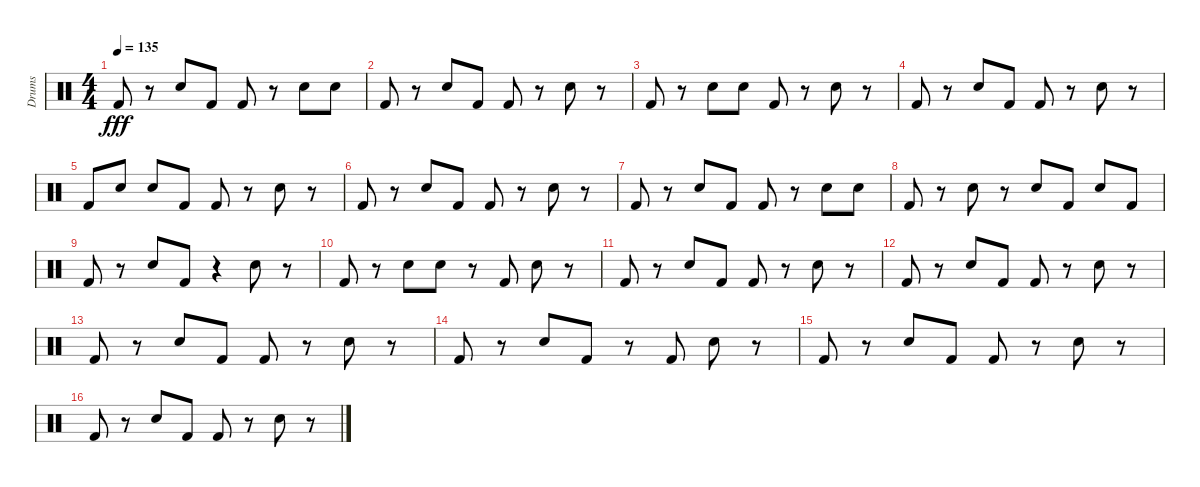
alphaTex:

\track ("Drums" "Drums") {instrument percussion}
\staff {score}
\articulation defaults
\ts (4 4)
\tempo 135
\clef neutral
\ks c "Kick (hit) 2".8{dy fff}
r.8 "Snare (hit) 2".8 "Kick (hit) 2".8 "Kick (hit) 2".8 r.8 "Snare (hit) 2".8 "Snare (hit) 2".8 |
"Kick (hit) 2".8 r.8 "Snare (hit) 2".8 "Kick (hit) 2".8 "Kick (hit) 2".8 r.8 "Snare (hit) 2".8 r.8 |
"Kick (hit) 2".8 r.8 "Snare (hit) 2".8 "Snare (hit) 2".8 "Kick (hit) 2".8 r.8 "Snare (hit) 2".8 r.8 |
"Kick (hit) 2".8 r.8 "Snare (hit) 2".8 "Kick (hit) 2".8 "Kick (hit) 2".8 r.8 "Snare (hit) 2".8 r.8 |
"Kick (hit) 2".8 "Snare (hit) 2".8 "Snare (hit) 2".8 "Kick (hit) 2".8 "Kick (hit) 2".8 r.8 "Snare (hit) 2".8 r.8 |
"Kick (hit) 2".8 r.8 "Snare (hit) 2".8 "Kick (hit) 2".8 "Kick (hit) 2".8 r.8 "Snare (hit) 2".8 r.8 |
"Kick (hit) 2".8 r.8 "Snare (hit) 2".8 "Kick (hit) 2".8 "Kick (hit) 2".8 r.8 "Snare (hit) 2".8 "Snare (hit) 2".8 |
"Kick (hit) 2".8 r.8 "Snare (hit) 2".8 r.8 "Snare (hit) 2".8 "Kick (hit) 2".8 "Snare (hit) 2".8 "Kick (hit) 2".8 |
"Kick (hit) 2".8 r.8 "Snare (hit) 2".8 "Kick (hit) 2".8 r.4 "Snare (hit) 2".8 r.8 |
"Kick (hit) 2".8 r.8 "Snare (hit) 2".8 "Snare (hit) 2".8 r.8 "Kick (hit) 2".8 "Snare (hit) 2".8 r.8 |
"Kick (hit) 2".8 r.8 "Snare (hit) 2".8 "Kick (hit) 2".8 "Kick (hit) 2".8 r.8 "Snare (hit) 2".8 r.8 |
"Kick (hit) 2".8 r.8 "Snare (hit) 2".8 "Kick (hit) 2".8 "Kick (hit) 2".8 r.8 "Snare (hit) 2".8 r.8 |
"Kick (hit) 2".8 r.8 "Snare (hit) 2".8 "Kick (hit) 2".8 "Kick (hit) 2".8 r.8 "Snare (hit) 2".8 r.8 |
"Kick (hit) 2".8 r.8 "Snare (hit) 2".8 "Kick (hit) 2".8 r.8 "Kick (hit) 2".8 "Snare (hit) 2".8 r.8 |
"Kick (hit) 2".8 r.8 "Snare (hit) 2".8 "Kick (hit) 2".8 "Kick (hit) 2".8 r.8 "Snare (hit) 2".8 r.8 |
"Kick (hit) 2".8 r.8 "Snare (hit) 2".8 "Kick (hit) 2".8 "Kick (hit) 2".8 r.8 "Snare (hit) 2".8 r.8
